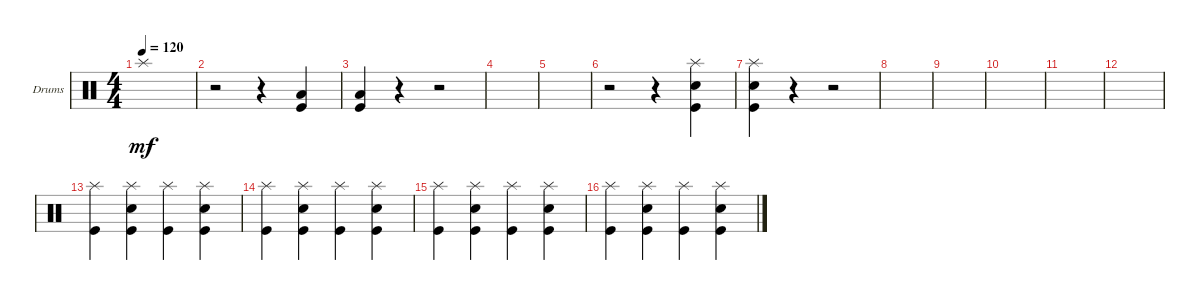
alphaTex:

\bracketExtendMode groupsimilarinstruments
\firstSystemTrackNameOrientation horizontal
\otherSystemsTrackNameOrientation horizontal
\track ("Drumkit" "Drums") {instrument percussion}
\staff {score}
\articulation defaults
\ts (4 4)
\tempo 120
\clef neutral
\ks c "Splash (hit)".1{dy mf}
|
r.2 r.4 ("Kick (hit)" "Low Tom (hit)").4 |
("Kick (hit)" "Low Tom (hit)").4 r.4 r.2 |
|
|
r.2 r.4 ("Kick (hit)" "Snare (hit) 2" "Splash (hit)").4 |
("Kick (hit)" "Snare (hit) 2" "Splash (hit)").4 r.4 r.2 |
|
|
|
|
|
("Splash (hit)" "Kick (hit)").4 ("Splash (hit)" "Kick (hit)" "Snare (hit) 2").4 ("Splash (hit)" "Kick (hit)").4 ("Splash (hit)" "Kick (hit)" "Snare (hit) 2").4 |
("Splash (hit)" "Kick (hit)").4 ("Splash (hit)" "Kick (hit)" "Snare (hit) 2").4 ("Splash (hit)" "Kick (hit)").4 ("Splash (hit)" "Kick (hit)" "Snare (hit) 2").4 |
("Splash (hit)" "Kick (hit)").4 ("Splash (hit)" "Kick (hit)" "Snare (hit) 2").4 ("Splash (hit)" "Kick (hit)").4 ("Splash (hit)" "Kick (hit)" "Snare (hit) 2").4 |
("Splash (hit)" "Kick (hit)").4 ("Splash (hit)" "Kick (hit)" "Snare (hit) 2").4 ("Splash (hit)" "Kick (hit)").4 ("Splash (hit)" "Kick (hit)" "Snare (hit) 2").4
